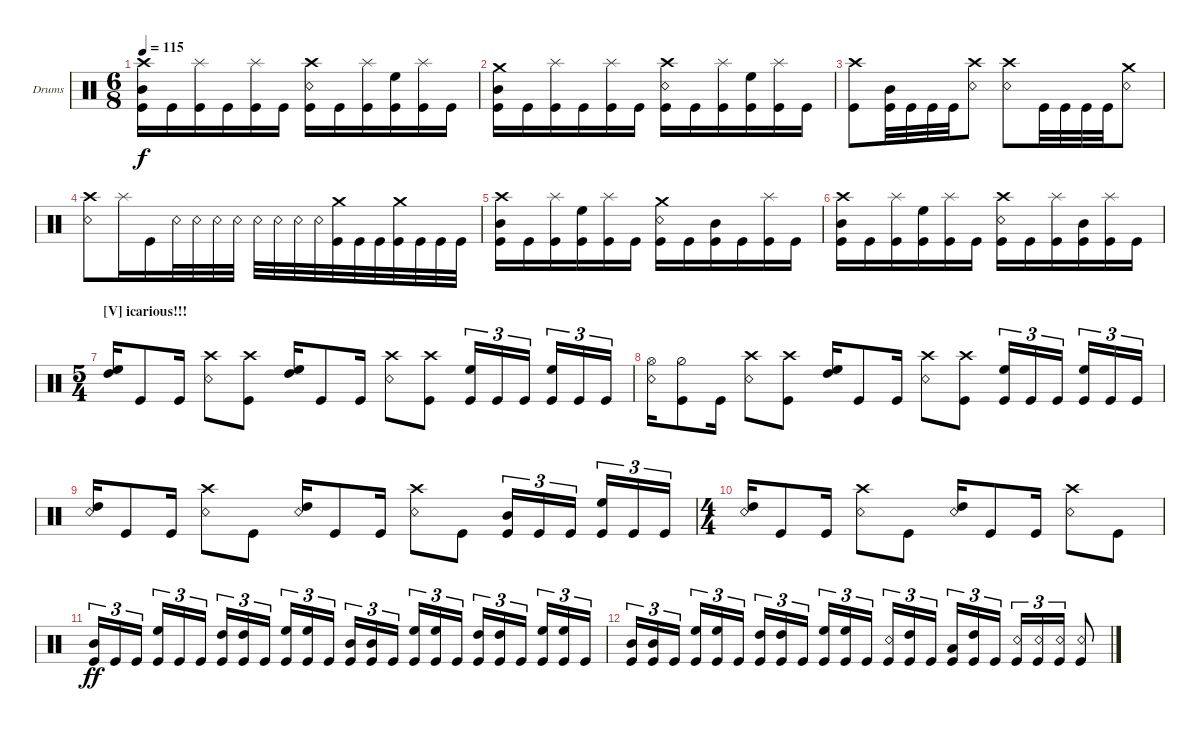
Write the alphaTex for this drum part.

\defaultSystemsLayout 4
\bracketExtendMode groupsimilarinstruments
\firstSystemTrackNameOrientation horizontal
\otherSystemsTrackNameOrientation horizontal
\track ("Drumkit" "Drums") {instrument percussion}
\staff {score}
\articulation defaults
\ts (6 8)
\tempo 115
\clef neutral
\scale
0.333333
\ks c
("Kick (hit)" "Mid Tom (hit)" "Crash high (hit)").16{dy f} "Kick (hit)".16 ("Kick (hit)" "Splash (hit)").16 "Kick (hit)".16 ("Kick (hit)" "Splash (hit)").16 "Kick (hit)".16 ("Kick (hit)" "Crash high (hit)" "Snare (rim shot)").16 "Kick (hit)".16 ("Kick (hit)" "Splash (hit)").16 ("Kick (hit)" "High Floor Tom (hit)").16 ("Kick (hit)" "Splash (hit)").16 "Kick (hit)".16 |
\scale
0.333333 ("Crash medium (hit)" "Kick (hit)" "Mid Tom (hit)").16 "Kick (hit)".16 ("Kick (hit)" "Splash (hit)").16 "Kick (hit)".16 ("Kick (hit)" "Splash (hit)").16 "Kick (hit)".16 ("Kick (hit)" "Crash high (hit)" "Snare (rim shot)").16 "Kick (hit)".16 ("Kick (hit)" "Splash (hit)").16 ("Kick (hit)" "High Floor Tom (hit)").16 ("Kick (hit)" "Splash (hit)").16 "Kick (hit)".16 |
\scale
0.333333 ("Kick (hit)" "Crash high (hit)").8 ("Kick (hit)" "Mid Tom (hit)").32 "Kick (hit)".32 "Kick (hit)".32 "Kick (hit)".32 ("Snare (rim shot)" "Crash high (hit)").8 ("Snare (rim shot)" "Crash high (hit)").8 "Kick (hit)".32 "Kick (hit)".32 "Kick (hit)".32 "Kick (hit)".32 ("Snare (rim shot)" "Crash medium (hit)").8 |
\scale
0.333333 ("Snare (rim shot)" "Crash high (hit)").8 "Splash (hit)".16 "Kick (hit)".16 "Snare (rim shot)".32 "Snare (rim shot)".32 "Snare (rim shot)".32 "Snare (rim shot)".32 "Snare (rim shot)".32 "Snare (rim shot)".32 "Snare (rim shot)".32 "Snare (rim shot)".32 ("Crash medium (hit)" "Kick (hit)").32 "Kick (hit)".32 "Kick (hit)".32 ("Kick (hit)" "Crash medium (hit)").32 "Kick (hit)".32 "Kick (hit)".32 "Kick (hit)".32 |
\scale
0.333333 ("Kick (hit)" "Crash high (hit)" "Mid Tom (hit)").16 "Kick (hit)".16 ("Kick (hit)" "Splash (hit)").16 ("Kick (hit)" "High Floor Tom (hit)").16 ("Kick (hit)" "Splash (hit)").16 "Kick (hit)".16 ("Kick (hit)" "Crash medium (hit)" "Snare (rim shot)").16 "Kick (hit)".16 ("Kick (hit)" "Mid Tom (hit)").16 "Kick (hit)".16 ("Kick (hit)" "Splash (hit)").16 "Kick (hit)".16 |
\scale
0.263889 ("Kick (hit)" "Crash high (hit)" "Mid Tom (hit)").16 "Kick (hit)".16 ("Kick (hit)" "Splash (hit)").16 ("Kick (hit)" "High Floor Tom (hit)").16 ("Kick (hit)" "Splash (hit)").16 "Kick (hit)".16 ("Kick (hit)" "Snare (rim shot)" "Crash high (hit)").16 "Kick (hit)".16 ("Kick (hit)" "Splash (hit)").16 ("Kick (hit)" "Mid Tom (hit)").16 ("Kick (hit)" "Splash (hit)").16 "Kick (hit)".16 |
\ts (5 4)
\beaming (8 2 2 2 2 2)
\section ("V" "icarious!!!")
\scale
0.472222 ("High Floor Tom (hit)" "High Tom (hit)").16 "Kick (hit)".8 "Kick (hit)".16 ("Snare (rim shot)" "Crash high (hit)").8 ("Kick (hit)" "Crash high (hit)").8 ("High Floor Tom (hit)" "High Tom (hit)").16 "Kick (hit)".8 "Kick (hit)".16 ("Snare (rim shot)" "Crash high (hit)").8 ("Kick (hit)" "Crash high (hit)").8 ("Kick (hit)" "High Floor Tom (hit)").16{tu (3 2)} "Kick (hit)".16{tu (3 2)} "Kick (hit)".16{tu (3 2)} ("Kick (hit)" "High Floor Tom (hit)").16{tu (3 2)} "Kick (hit)".16{tu (3 2)} "Kick (hit)".16{tu (3 2)} |
\scale
0.263889 ("Snare (rim shot)" "Hi-Hat (open)").16 ("Kick (hit)" "Hi-Hat (half)").8 "Kick (hit)".16 ("Snare (rim shot)" "Crash high (hit)").8 ("Kick (hit)" "Crash high (hit)").8 ("High Floor Tom (hit)" "High Tom (hit)").16 "Kick (hit)".8 "Kick (hit)".16 ("Snare (rim shot)" "Crash high (hit)").8 ("Kick (hit)" "Crash high (hit)").8 ("Kick (hit)" "High Floor Tom (hit)").16{tu (3 2)} "Kick (hit)".16{tu (3 2)} "Kick (hit)".16{tu (3 2)} ("Kick (hit)" "High Floor Tom (hit)").16{tu (3 2)} "Kick (hit)".16{tu (3 2)} "Kick (hit)".16{tu (3 2)} |
\scale
0.263889 ("High Tom (hit)" "Snare (rim shot)").16 "Kick (hit)".8 "Kick (hit)".16 ("Snare (rim shot)" "Crash high (hit)").8 "Kick (hit)".8 ("Snare (rim shot)" "High Tom (hit)").16 "Kick (hit)".8 "Kick (hit)".16 ("Snare (rim shot)" "Crash high (hit)").8 "Kick (hit)".8 ("Kick (hit)" "Mid Tom (hit)").16{tu (3 2)} "Kick (hit)".16{tu (3 2)} "Kick (hit)".16{tu (3 2)} ("Kick (hit)" "High Floor Tom (hit)").16{tu (3 2)} "Kick (hit)".16{tu (3 2)} "Kick (hit)".16{tu (3 2)} |
\ts (4 4)
\scale
0.472222 ("High Tom (hit)" "Snare (rim shot)").16 "Kick (hit)".8 "Kick (hit)".16 ("Snare (rim shot)" "Crash high (hit)").8 "Kick (hit)".8 ("Snare (rim shot)" "High Tom (hit)").16 "Kick (hit)".8 "Kick (hit)".16 ("Snare (rim shot)" "Crash high (hit)").8 "Kick (hit)".8 |
\scale
0.263889 ("Kick (hit)" "Mid Tom (hit)").16{tu (3 2) dy ff} "Kick (hit)".16{tu (3 2)} "Kick (hit)".16{tu (3 2)} ("Kick (hit)" "High Floor Tom (hit)").16{tu (3 2)} "Kick (hit)".16{tu (3 2)} "Kick (hit)".16{tu (3 2)} ("Kick (hit)" "High Tom (hit)").16{tu (3 2)} ("Kick (hit)" "High Tom (hit)").16{tu (3 2)} "Kick (hit)".16{tu (3 2)} ("Kick (hit)" "High Floor Tom (hit)").16{tu (3 2)} ("Kick (hit)" "High Floor Tom (hit)").16{tu (3 2)} "Kick (hit)".16{tu (3 2)} ("Kick (hit)" "Mid Tom (hit)").16{tu (3 2)} ("Kick (hit)" "Mid Tom (hit)").16{tu (3 2)} "Kick (hit)".16{tu (3 2)} ("Kick (hit)" "High Floor Tom (hit)").16{tu (3 2)} ("Kick (hit)" "High Floor Tom (hit)").16{tu (3 2)} "Kick (hit)".16{tu (3 2)} ("Kick (hit)" "High Tom (hit)").16{tu (3 2)} ("Kick (hit)" "High Tom (hit)").16{tu (3 2)} "Kick (hit)".16{tu (3 2)} ("Kick (hit)" "High Floor Tom (hit)").16{tu (3 2)} ("Kick (hit)" "High Floor Tom (hit)").16{tu (3 2)} "Kick (hit)".16{tu (3 2)} |
("Kick (hit)" "Mid Tom (hit)").16{tu (3 2)} ("Kick (hit)" "Mid Tom (hit)").16{tu (3 2)} "Kick (hit)".16{tu (3 2)} ("Kick (hit)" "High Floor Tom (hit)").16{tu (3 2)} ("Kick (hit)" "High Floor Tom (hit)").16{tu (3 2)} "Kick (hit)".16{tu (3 2)} ("Kick (hit)" "High Tom (hit)").16{tu (3 2)} ("Kick (hit)" "High Tom (hit)").16{tu (3 2)} "Kick (hit)".16{tu (3 2)} ("Kick (hit)" "High Floor Tom (hit)").16{tu (3 2)} ("Kick (hit)" "High Floor Tom (hit)").16{tu (3 2)} "Kick (hit)".16{tu (3 2)} ("Kick (hit)" "Snare (rim shot)").16{tu (3 2)} ("Kick (hit)" "High Tom (hit)").16{tu (3 2)} "Kick (hit)".16{tu (3 2)} ("Kick (hit)" "Low Tom (hit)").16{tu (3 2)} ("Kick (hit)" "High Tom (hit)").16{tu (3 2)} "Kick (hit)".16{tu (3 2)} ("Kick (hit)" "Snare (rim shot)").16{tu (3 2)} ("Kick (hit)" "Snare (rim shot)").16{tu (3 2)} ("Kick (hit)" "Snare (rim shot)").16{tu (3 2)} ("Kick (hit)" "Snare (rim shot)").8
